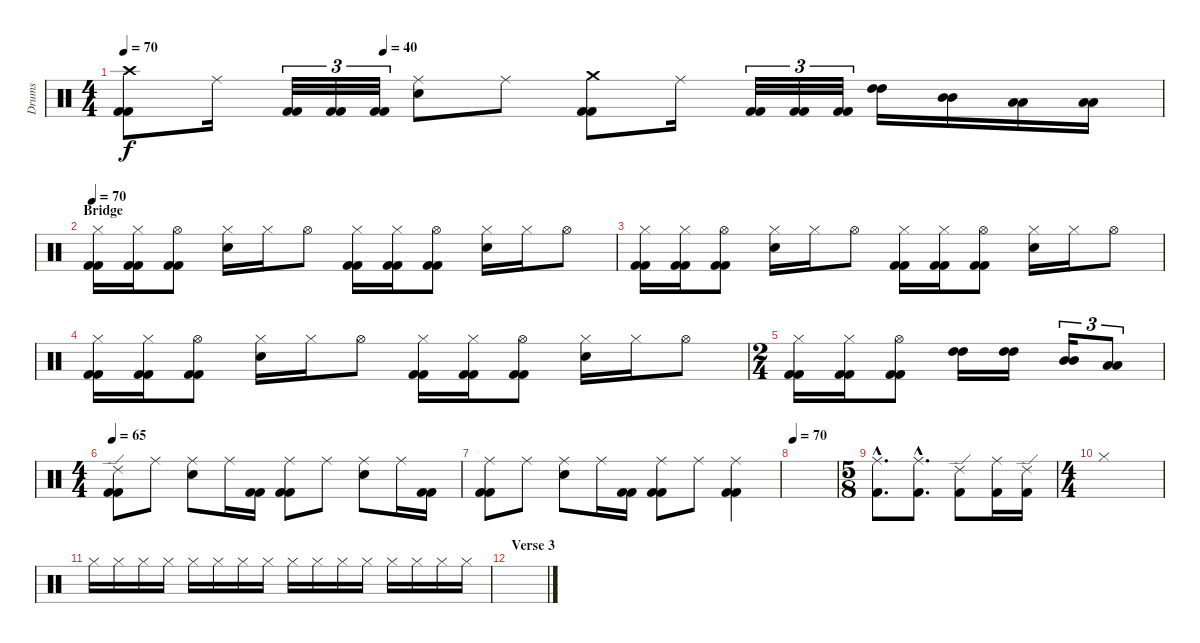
\track ("Drums" "Drums") {instrument percussion}
\staff {score}
\articulation defaults
\ts (4 4)
\tempo 70
\tempo (40 0.25)
\clef neutral
\ks c
("Crash high (hit)" "Kick (hit) 2" "Kick (hit) 2").8{dy f} "Ride (middle)".16 ("Kick (hit) 2" "Kick (hit) 2").32{tu (3 2)} ("Kick (hit) 2" "Kick (hit) 2").32{tu (3 2)} ("Kick (hit) 2" "Kick (hit) 2").32{tu (3 2)} ("Ride (middle)" "Snare (hit) 2").8 "Ride (middle)".8 ("Crash medium (hit)" "Kick (hit) 2" "Kick (hit) 2").8 "Ride (middle)".16 ("Kick (hit) 2" "Kick (hit) 2").32{tu (3 2)} ("Kick (hit) 2" "Kick (hit) 2").32{tu (3 2)} ("Kick (hit) 2" "Kick (hit) 2").32{tu (3 2)} ("High Tom (hit)" "High Tom (hit)").16 ("Mid Tom (hit)" "Mid Tom (hit)").16 ("Low Tom (hit)" "Low Tom (hit)").16 ("Low Floor Tom (hit)" "Low Floor Tom (hit)").16 |
\section ("" "Bridge")
\tempo 70
("Hi-Hat (closed)" "Kick (hit) 2" "Kick (hit) 2").16 ("Hi-Hat (closed)" "Kick (hit) 2" "Kick (hit) 2").16 ("Hi-Hat (open)" "Kick (hit) 2" "Kick (hit) 2").8 ("Hi-Hat (closed)" "Snare (hit) 2").16 "Hi-Hat (closed)".16 "Hi-Hat (open)".8 ("Hi-Hat (closed)" "Kick (hit) 2" "Kick (hit) 2").16 ("Hi-Hat (closed)" "Kick (hit) 2" "Kick (hit) 2").16 ("Hi-Hat (open)" "Kick (hit) 2" "Kick (hit) 2").8 ("Hi-Hat (closed)" "Snare (hit) 2").16 "Hi-Hat (closed)".16 "Hi-Hat (open)".8 |
("Hi-Hat (closed)" "Kick (hit) 2" "Kick (hit) 2").16 ("Hi-Hat (closed)" "Kick (hit) 2" "Kick (hit) 2").16 ("Hi-Hat (open)" "Kick (hit) 2" "Kick (hit) 2").8 ("Hi-Hat (closed)" "Snare (hit) 2").16 "Hi-Hat (closed)".16 "Hi-Hat (open)".8 ("Hi-Hat (closed)" "Kick (hit) 2" "Kick (hit) 2").16 ("Hi-Hat (closed)" "Kick (hit) 2" "Kick (hit) 2").16 ("Hi-Hat (open)" "Kick (hit) 2" "Kick (hit) 2").8 ("Hi-Hat (closed)" "Snare (hit) 2").16 "Hi-Hat (closed)".16 "Hi-Hat (open)".8 |
("Hi-Hat (closed)" "Kick (hit) 2" "Kick (hit) 2").16 ("Hi-Hat (closed)" "Kick (hit) 2" "Kick (hit) 2").16 ("Hi-Hat (open)" "Kick (hit) 2" "Kick (hit) 2").8 ("Hi-Hat (closed)" "Snare (hit) 2").16 "Hi-Hat (closed)".16 "Hi-Hat (open)".8 ("Hi-Hat (closed)" "Kick (hit) 2" "Kick (hit) 2").16 ("Hi-Hat (closed)" "Kick (hit) 2" "Kick (hit) 2").16 ("Hi-Hat (open)" "Kick (hit) 2" "Kick (hit) 2").8 ("Hi-Hat (closed)" "Snare (hit) 2").16 "Hi-Hat (closed)".16 "Hi-Hat (open)".8 |
\ts (2 4)
("Hi-Hat (closed)" "Kick (hit) 2" "Kick (hit) 2").16 ("Hi-Hat (closed)" "Kick (hit) 2" "Kick (hit) 2").16 ("Hi-Hat (open)" "Kick (hit) 2" "Kick (hit) 2").8 ("High Tom (hit)" "High Tom (hit)").16 ("High Tom (hit)" "High Tom (hit)").16 ("Mid Tom (hit)" "Mid Tom (hit)").16{tu (3 2)} ("Low Tom (hit)" "Low Tom (hit)").8{tu (3 2)} |
\ts (4 4)
\tempo 65
("Ride (edge) 2" "Kick (hit) 2" "Kick (hit) 2").8 "Ride (middle)".8 ("Ride (middle)" "Snare (hit) 2").8 "Ride (middle)".16 ("Kick (hit) 2" "Kick (hit) 2").16 ("Ride (middle)" "Kick (hit) 2" "Kick (hit) 2").8 "Ride (middle)".8 ("Ride (middle)" "Snare (hit) 2").8 "Ride (middle)".16 ("Kick (hit) 2" "Kick (hit) 2").16 |
("Ride (middle)" "Kick (hit) 2" "Kick (hit) 2").8 "Ride (middle)".8 ("Ride (middle)" "Snare (hit) 2").8 "Ride (middle)".16 ("Kick (hit) 2" "Kick (hit) 2").16 ("Ride (middle)" "Kick (hit) 2" "Kick (hit) 2").8 "Ride (middle)".8 ("Ride (middle)" "Kick (hit) 2" "Kick (hit) 2").4 |
\tempo 70
|
\ts (5 8)
("Ride (middle)"{hac} "Kick (hit) 2"{hac}).8{d} ("Ride (middle)"{hac} "Kick (hit) 2"{hac}).8{d} ("Ride (edge) 2" "Kick (hit) 2").8 ("Ride (middle)" "Kick (hit) 2").16 ("Ride (edge) 2" "Kick (hit) 2").16 |
\ts (4 4)
"Hi-Hat (closed)".1{volume 0} |
"Hi-Hat (closed)".16{volume 16} "Hi-Hat (closed)".16 "Hi-Hat (closed)".16 "Hi-Hat (closed)".16 "Hi-Hat (closed)".16 "Hi-Hat (closed)".16 "Hi-Hat (closed)".16 "Hi-Hat (closed)".16 "Hi-Hat (closed)".16 "Hi-Hat (closed)".16 "Hi-Hat (closed)".16 "Hi-Hat (closed)".16 "Hi-Hat (closed)".16 "Hi-Hat (closed)".16 "Hi-Hat (closed)".16 "Hi-Hat (closed)".16 |
\section ("" "Verse 3")
